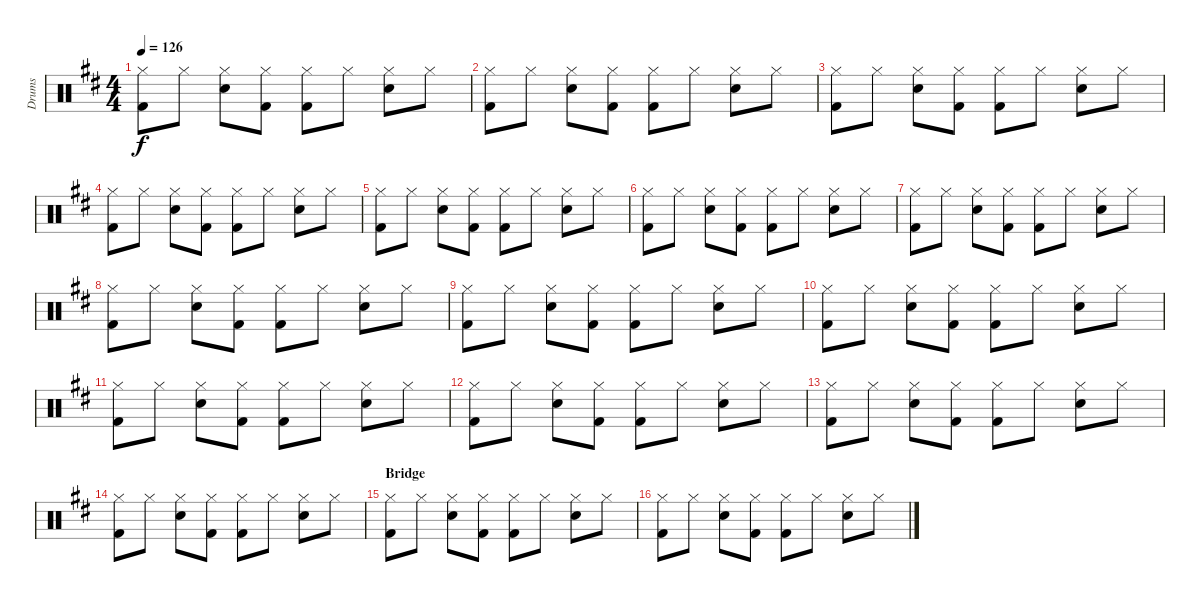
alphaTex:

\track ("Drums" "Drums") {instrument percussion}
\staff {score}
\articulation defaults
\ts (4 4)
\tempo 126
\clef neutral
\ks d
("Kick (hit) 2" "Hi-Hat (closed)").8{dy f} "Hi-Hat (closed)".8 ("Snare (hit) 2" "Hi-Hat (closed)").8 ("Kick (hit) 2" "Hi-Hat (closed)").8 ("Kick (hit) 2" "Hi-Hat (closed)").8 "Hi-Hat (closed)".8 ("Snare (hit) 2" "Hi-Hat (closed)").8 "Hi-Hat (closed)".8 |
("Kick (hit) 2" "Hi-Hat (closed)").8 "Hi-Hat (closed)".8 ("Snare (hit) 2" "Hi-Hat (closed)").8 ("Kick (hit) 2" "Hi-Hat (closed)").8 ("Kick (hit) 2" "Hi-Hat (closed)").8 "Hi-Hat (closed)".8 ("Snare (hit) 2" "Hi-Hat (closed)").8 "Hi-Hat (closed)".8 |
("Kick (hit) 2" "Hi-Hat (closed)").8 "Hi-Hat (closed)".8 ("Snare (hit) 2" "Hi-Hat (closed)").8 ("Kick (hit) 2" "Hi-Hat (closed)").8 ("Kick (hit) 2" "Hi-Hat (closed)").8 "Hi-Hat (closed)".8 ("Snare (hit) 2" "Hi-Hat (closed)").8 "Hi-Hat (closed)".8 |
("Kick (hit) 2" "Hi-Hat (closed)").8 "Hi-Hat (closed)".8 ("Snare (hit) 2" "Hi-Hat (closed)").8 ("Kick (hit) 2" "Hi-Hat (closed)").8 ("Kick (hit) 2" "Hi-Hat (closed)").8 "Hi-Hat (closed)".8 ("Snare (hit) 2" "Hi-Hat (closed)").8 "Hi-Hat (closed)".8 |
("Kick (hit) 2" "Hi-Hat (closed)").8 "Hi-Hat (closed)".8 ("Snare (hit) 2" "Hi-Hat (closed)").8 ("Kick (hit) 2" "Hi-Hat (closed)").8 ("Kick (hit) 2" "Hi-Hat (closed)").8 "Hi-Hat (closed)".8 ("Snare (hit) 2" "Hi-Hat (closed)").8 "Hi-Hat (closed)".8 |
("Kick (hit) 2" "Hi-Hat (closed)").8 "Hi-Hat (closed)".8 ("Snare (hit) 2" "Hi-Hat (closed)").8 ("Kick (hit) 2" "Hi-Hat (closed)").8 ("Kick (hit) 2" "Hi-Hat (closed)").8 "Hi-Hat (closed)".8 ("Snare (hit) 2" "Hi-Hat (closed)").8 "Hi-Hat (closed)".8 |
("Kick (hit) 2" "Hi-Hat (closed)").8 "Hi-Hat (closed)".8 ("Snare (hit) 2" "Hi-Hat (closed)").8 ("Kick (hit) 2" "Hi-Hat (closed)").8 ("Kick (hit) 2" "Hi-Hat (closed)").8 "Hi-Hat (closed)".8 ("Snare (hit) 2" "Hi-Hat (closed)").8 "Hi-Hat (closed)".8 |
("Kick (hit) 2" "Hi-Hat (closed)").8 "Hi-Hat (closed)".8 ("Snare (hit) 2" "Hi-Hat (closed)").8 ("Kick (hit) 2" "Hi-Hat (closed)").8 ("Kick (hit) 2" "Hi-Hat (closed)").8 "Hi-Hat (closed)".8 ("Snare (hit) 2" "Hi-Hat (closed)").8 "Hi-Hat (closed)".8 |
("Kick (hit) 2" "Hi-Hat (closed)").8 "Hi-Hat (closed)".8 ("Snare (hit) 2" "Hi-Hat (closed)").8 ("Kick (hit) 2" "Hi-Hat (closed)").8 ("Kick (hit) 2" "Hi-Hat (closed)").8 "Hi-Hat (closed)".8 ("Snare (hit) 2" "Hi-Hat (closed)").8 "Hi-Hat (closed)".8 |
("Kick (hit) 2" "Hi-Hat (closed)").8 "Hi-Hat (closed)".8 ("Snare (hit) 2" "Hi-Hat (closed)").8 ("Kick (hit) 2" "Hi-Hat (closed)").8 ("Kick (hit) 2" "Hi-Hat (closed)").8 "Hi-Hat (closed)".8 ("Snare (hit) 2" "Hi-Hat (closed)").8 "Hi-Hat (closed)".8 |
("Kick (hit) 2" "Hi-Hat (closed)").8 "Hi-Hat (closed)".8 ("Snare (hit) 2" "Hi-Hat (closed)").8 ("Kick (hit) 2" "Hi-Hat (closed)").8 ("Kick (hit) 2" "Hi-Hat (closed)").8 "Hi-Hat (closed)".8 ("Snare (hit) 2" "Hi-Hat (closed)").8 "Hi-Hat (closed)".8 |
("Kick (hit) 2" "Hi-Hat (closed)").8 "Hi-Hat (closed)".8 ("Snare (hit) 2" "Hi-Hat (closed)").8 ("Kick (hit) 2" "Hi-Hat (closed)").8 ("Kick (hit) 2" "Hi-Hat (closed)").8 "Hi-Hat (closed)".8 ("Snare (hit) 2" "Hi-Hat (closed)").8 "Hi-Hat (closed)".8 |
("Kick (hit) 2" "Hi-Hat (closed)").8 "Hi-Hat (closed)".8 ("Snare (hit) 2" "Hi-Hat (closed)").8 ("Kick (hit) 2" "Hi-Hat (closed)").8 ("Kick (hit) 2" "Hi-Hat (closed)").8 "Hi-Hat (closed)".8 ("Snare (hit) 2" "Hi-Hat (closed)").8 "Hi-Hat (closed)".8 |
("Kick (hit) 2" "Hi-Hat (closed)").8 "Hi-Hat (closed)".8 ("Snare (hit) 2" "Hi-Hat (closed)").8 ("Kick (hit) 2" "Hi-Hat (closed)").8 ("Kick (hit) 2" "Hi-Hat (closed)").8 "Hi-Hat (closed)".8 ("Snare (hit) 2" "Hi-Hat (closed)").8 "Hi-Hat (closed)".8 |
\section ("" "Bridge")
("Kick (hit) 2" "Hi-Hat (closed)").8 "Hi-Hat (closed)".8 ("Snare (hit) 2" "Hi-Hat (closed)").8 ("Kick (hit) 2" "Hi-Hat (closed)").8 ("Kick (hit) 2" "Hi-Hat (closed)").8 "Hi-Hat (closed)".8 ("Snare (hit) 2" "Hi-Hat (closed)").8 "Hi-Hat (closed)".8 |
("Kick (hit) 2" "Hi-Hat (closed)").8 "Hi-Hat (closed)".8 ("Snare (hit) 2" "Hi-Hat (closed)").8 ("Kick (hit) 2" "Hi-Hat (closed)").8 ("Kick (hit) 2" "Hi-Hat (closed)").8 "Hi-Hat (closed)".8 ("Snare (hit) 2" "Hi-Hat (closed)").8 "Hi-Hat (closed)".8
